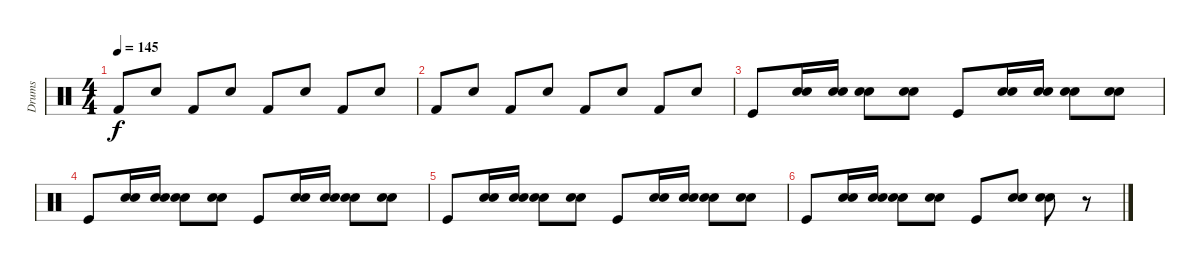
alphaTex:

\track ("Drums" "Drums") {instrument percussion}
\staff {score}
\articulation defaults
\ts (4 4)
\tempo 145
\clef neutral
\ks c "Kick (hit) 2".8{dy f} "Snare (hit) 2".8 "Kick (hit) 2".8 "Snare (hit) 2".8 "Kick (hit) 2".8 "Snare (hit) 2".8 "Kick (hit) 2".8 "Snare (hit) 2".8
|
"Kick (hit) 2".8 "Snare (hit) 2".8 "Kick (hit) 2".8 "Snare (hit) 2".8 "Kick (hit) 2".8 "Snare (hit) 2".8 "Kick (hit) 2".8 "Snare (hit) 2".8 |
"Kick (hit)".8 ("Electric Snare (hit)" "Snare (hit) 2").16 ("Electric Snare (hit)" "Snare (hit) 2").16 ("Electric Snare (hit)" "Snare (hit) 2").8 ("Electric Snare (hit)" "Snare (hit) 2").8 "Kick (hit)".8 ("Electric Snare (hit)" "Snare (hit) 2").16 ("Electric Snare (hit)" "Snare (hit) 2").16 ("Electric Snare (hit)" "Snare (hit) 2").8 ("Electric Snare (hit)" "Snare (hit) 2").8 |
"Kick (hit)".8 ("Electric Snare (hit)" "Snare (hit) 2").16 ("Electric Snare (hit)" "Snare (hit) 2").16 ("Electric Snare (hit)" "Snare (hit) 2").8 ("Electric Snare (hit)" "Snare (hit) 2").8 "Kick (hit)".8 ("Electric Snare (hit)" "Snare (hit) 2").16 ("Electric Snare (hit)" "Snare (hit) 2").16 ("Electric Snare (hit)" "Snare (hit) 2").8 ("Electric Snare (hit)" "Snare (hit) 2").8 |
"Kick (hit)".8 ("Electric Snare (hit)" "Snare (hit) 2").16 ("Electric Snare (hit)" "Snare (hit) 2").16 ("Electric Snare (hit)" "Snare (hit) 2").8 ("Electric Snare (hit)" "Snare (hit) 2").8 "Kick (hit)".8 ("Electric Snare (hit)" "Snare (hit) 2").16 ("Electric Snare (hit)" "Snare (hit) 2").16 ("Electric Snare (hit)" "Snare (hit) 2").8 ("Electric Snare (hit)" "Snare (hit) 2").8 |
"Kick (hit)".8 ("Electric Snare (hit)" "Snare (hit) 2").16 ("Electric Snare (hit)" "Snare (hit) 2").16 ("Electric Snare (hit)" "Snare (hit) 2").8 ("Electric Snare (hit)" "Snare (hit) 2").8 "Kick (hit)".8 ("Electric Snare (hit)" "Snare (hit) 2").8 ("Electric Snare (hit)" "Snare (hit) 2").8 r.8
